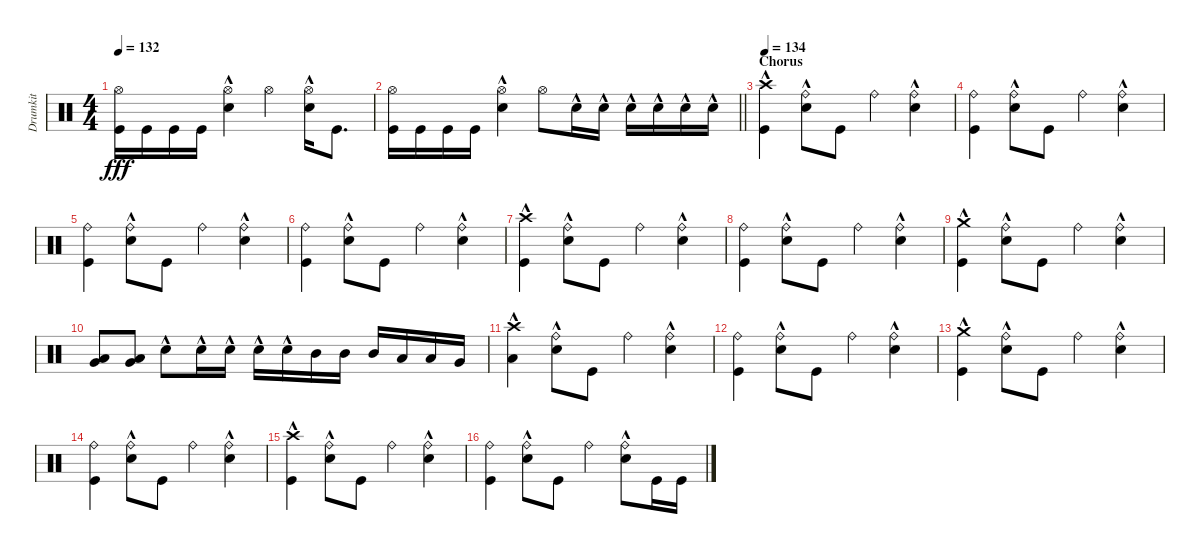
\track ("Drumkit" "Drumkit") {instrument percussion}
\staff {score}
\articulation defaults
\ts (4 4)
\tempo 132
\clef neutral
\ks c
("Kick (hit)" "Hi-Hat (open)").16{dy fff} "Kick (hit)".16 "Kick (hit)".16 "Kick (hit)".16 ("Snare (hit) 2"{hac} "Hi-Hat (open)").4 "Hi-Hat (open)".4 ("Snare (hit) 2"{hac} "Hi-Hat (open)").16 "Kick (hit)".8{d} |
\barLineRight lightlight
("Kick (hit)" "Hi-Hat (open)").16 "Kick (hit)".16 "Kick (hit)".16 "Kick (hit)".16 ("Snare (hit) 2"{hac} "Hi-Hat (open)").4 "Hi-Hat (open)".8 "Snare (hit) 2"{hac}.16 "Snare (hit) 2"{hac}.16 "Snare (hit) 2"{hac}.16 "Snare (hit) 2"{hac}.16 "Snare (hit) 2"{hac}.16 "Snare (hit) 2"{hac}.16 |
\section ("" "Chorus")
\tempo 134
("Kick (hit)" "Crash high (hit)"{hac}).4 ("Snare (hit) 2"{hac} "Ride (bell)").8 "Kick (hit)".8 "Ride (bell)".4 ("Snare (hit) 2"{hac} "Ride (bell)").4 |
("Kick (hit)" "Ride (bell)").4 ("Snare (hit) 2"{hac} "Ride (bell)").8 "Kick (hit)".8 "Ride (bell)".4 ("Snare (hit) 2"{hac} "Ride (bell)").4 |
("Kick (hit)" "Ride (bell)").4 ("Snare (hit) 2"{hac} "Ride (bell)").8 "Kick (hit)".8 "Ride (bell)".4 ("Snare (hit) 2"{hac} "Ride (bell)").4 |
("Kick (hit)" "Ride (bell)").4 ("Snare (hit) 2"{hac} "Ride (bell)").8 "Kick (hit)".8 "Ride (bell)".4 ("Snare (hit) 2"{hac} "Ride (bell)").4 |
("Kick (hit)" "Crash high (hit)"{hac}).4 ("Snare (hit) 2"{hac} "Ride (bell)").8 "Kick (hit)".8 "Ride (bell)".4 ("Snare (hit) 2"{hac} "Ride (bell)").4 |
("Kick (hit)" "Ride (bell)").4 ("Snare (hit) 2"{hac} "Ride (bell)").8 "Kick (hit)".8 "Ride (bell)".4 ("Snare (hit) 2"{hac} "Ride (bell)").4 |
("Kick (hit)" "Crash medium (hit)"{hac}).4 ("Snare (hit) 2"{hac} "Ride (bell)").8 "Kick (hit)".8 "Ride (bell)".4 ("Snare (hit) 2"{hac} "Ride (bell)").4 |
("Low Tom (hit)" "Very Low Tom (hit)").8 ("Very Low Tom (hit)" "Low Tom (hit)").8 "Snare (hit) 2"{hac}.8 "Snare (hit) 2"{hac}.16 "Snare (hit) 2"{hac}.16 "Snare (hit) 2"{hac}.16 "Snare (hit) 2"{hac}.16 "Mid Tom (hit)".16 "Mid Tom (hit)".16 "Mid Tom (hit)".16 "Low Tom (hit)".16 "Low Tom (hit)".16 "Very Low Tom (hit)".16 |
("Crash high (hit)"{hac} "Low Floor Tom (hit)").4 ("Snare (hit) 2"{hac} "Ride (bell)").8 "Kick (hit)".8 "Ride (bell)".4 ("Snare (hit) 2"{hac} "Ride (bell)").4 |
("Kick (hit)" "Ride (bell)").4 ("Snare (hit) 2"{hac} "Ride (bell)").8 "Kick (hit)".8 "Ride (bell)".4 ("Snare (hit) 2"{hac} "Ride (bell)").4 |
("Kick (hit)" "Crash medium (hit)"{hac}).4 ("Snare (hit) 2"{hac} "Ride (bell)").8 "Kick (hit)".8 "Ride (bell)".4 ("Snare (hit) 2"{hac} "Ride (bell)").4 |
("Kick (hit)" "Ride (bell)").4 ("Snare (hit) 2"{hac} "Ride (bell)").8 "Kick (hit)".8 "Ride (bell)".4 ("Snare (hit) 2"{hac} "Ride (bell)").4 |
("Kick (hit)" "Crash high (hit)"{hac}).4 ("Snare (hit) 2"{hac} "Ride (bell)").8 "Kick (hit)".8 "Ride (bell)".4 ("Snare (hit) 2"{hac} "Ride (bell)").4 |
("Kick (hit)" "Ride (bell)").4 ("Snare (hit) 2"{hac} "Ride (bell)").8 "Kick (hit)".8 "Ride (bell)".4 ("Snare (hit) 2"{hac} "Ride (bell)").8 "Kick (hit)".16 "Kick (hit)".16
